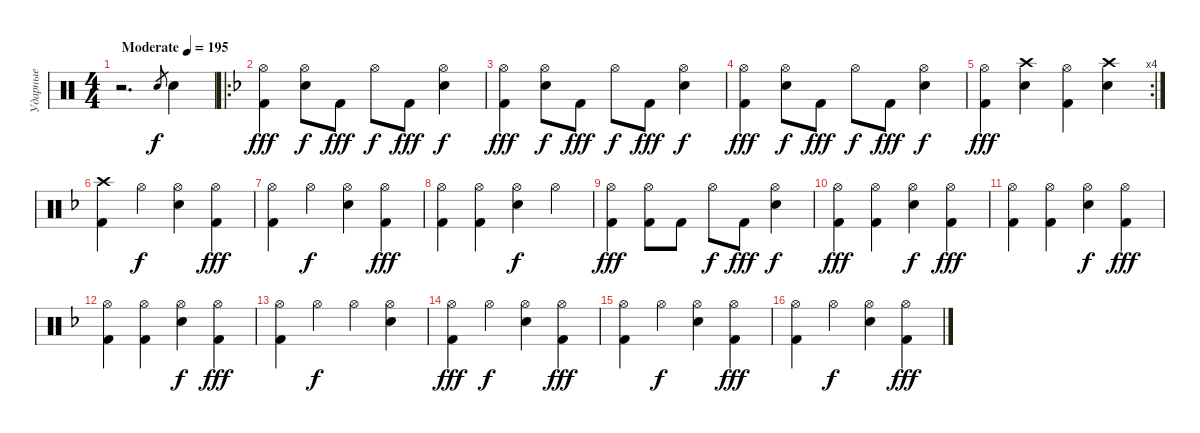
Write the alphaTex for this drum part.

\track ("Ударные" "Ударные") {instrument percussion}
\staff {score}
\articulation defaults
\ts (4 4)
\tempo (195 "Moderate")
\clef neutral
\ks c
r.2{d dy f} "Snare (hit) 2".8{gr} "Snare (hit) 2".4 |
\ro
\ks f
("Kick (hit) 2" "Hi-Hat (open)").4{dy fff} ("Snare (hit) 2" "Hi-Hat (open)").8{dy f} "Kick (hit) 2".8{dy fff} "Hi-Hat (open)".8{dy f} "Kick (hit) 2".8{dy fff} ("Snare (hit) 2" "Hi-Hat (open)").4{dy f} |
("Kick (hit) 2" "Hi-Hat (open)").4{dy fff} ("Snare (hit) 2" "Hi-Hat (open)").8{dy f} "Kick (hit) 2".8{dy fff} "Hi-Hat (open)".8{dy f} "Kick (hit) 2".8{dy fff} ("Snare (hit) 2" "Hi-Hat (open)").4{dy f} |
("Kick (hit) 2" "Hi-Hat (open)").4{dy fff} ("Snare (hit) 2" "Hi-Hat (open)").8{dy f} "Kick (hit) 2".8{dy fff} "Hi-Hat (open)".8{dy f} "Kick (hit) 2".8{dy fff} ("Snare (hit) 2" "Hi-Hat (open)").4{dy f} |
\rc 4
("Kick (hit) 2" "Hi-Hat (open)").4{dy fff} ("Snare (hit) 2" "Crash high (hit)").4 ("Kick (hit) 2" "Hi-Hat (open)").4 ("Snare (hit) 2" "Crash high (hit)").4 |
("Kick (hit) 2" "Crash high (hit)").4 "Hi-Hat (open)".4{dy f} ("Snare (hit) 2" "Hi-Hat (open)").4 ("Kick (hit) 2" "Hi-Hat (open)").4{dy fff} |
("Kick (hit) 2" "Hi-Hat (open)").4 "Hi-Hat (open)".4{dy f} ("Snare (hit) 2" "Hi-Hat (open)").4 ("Kick (hit) 2" "Hi-Hat (open)").4{dy fff} |
("Kick (hit) 2" "Hi-Hat (open)").4 ("Kick (hit) 2" "Hi-Hat (open)").4 ("Snare (hit) 2" "Hi-Hat (open)").4{dy f} "Hi-Hat (open)".4 |
("Kick (hit) 2" "Hi-Hat (open)").4{dy fff} ("Kick (hit) 2" "Hi-Hat (open)").8 "Kick (hit) 2".8 "Hi-Hat (open)".8{dy f} "Kick (hit) 2".8{dy fff} ("Snare (hit) 2" "Hi-Hat (open)").4{dy f} |
("Kick (hit) 2" "Hi-Hat (open)").4{dy fff} ("Kick (hit) 2" "Hi-Hat (open)").4 ("Snare (hit) 2" "Hi-Hat (open)").4{dy f} ("Kick (hit) 2" "Hi-Hat (open)").4{dy fff} |
("Kick (hit) 2" "Hi-Hat (open)").4 ("Kick (hit) 2" "Hi-Hat (open)").4 ("Snare (hit) 2" "Hi-Hat (open)").4{dy f} ("Kick (hit) 2" "Hi-Hat (open)").4{dy fff} |
("Kick (hit) 2" "Hi-Hat (open)").4 ("Kick (hit) 2" "Hi-Hat (open)").4 ("Snare (hit) 2" "Hi-Hat (open)").4{dy f} ("Kick (hit) 2" "Hi-Hat (open)").4{dy fff} |
("Kick (hit) 2" "Hi-Hat (open)").4 "Hi-Hat (open)".4{dy f} "Hi-Hat (open)".4 ("Snare (hit) 2" "Hi-Hat (open)").4 |
("Kick (hit) 2" "Hi-Hat (open)").4{dy fff} "Hi-Hat (open)".4{dy f} ("Snare (hit) 2" "Hi-Hat (open)").4 ("Kick (hit) 2" "Hi-Hat (open)").4{dy fff} |
("Kick (hit) 2" "Hi-Hat (open)").4 "Hi-Hat (open)".4{dy f} ("Snare (hit) 2" "Hi-Hat (open)").4 ("Kick (hit) 2" "Hi-Hat (open)").4{dy fff} |
("Kick (hit) 2" "Hi-Hat (open)").4 "Hi-Hat (open)".4{dy f} ("Snare (hit) 2" "Hi-Hat (open)").4 ("Kick (hit) 2" "Hi-Hat (open)").4{dy fff}
